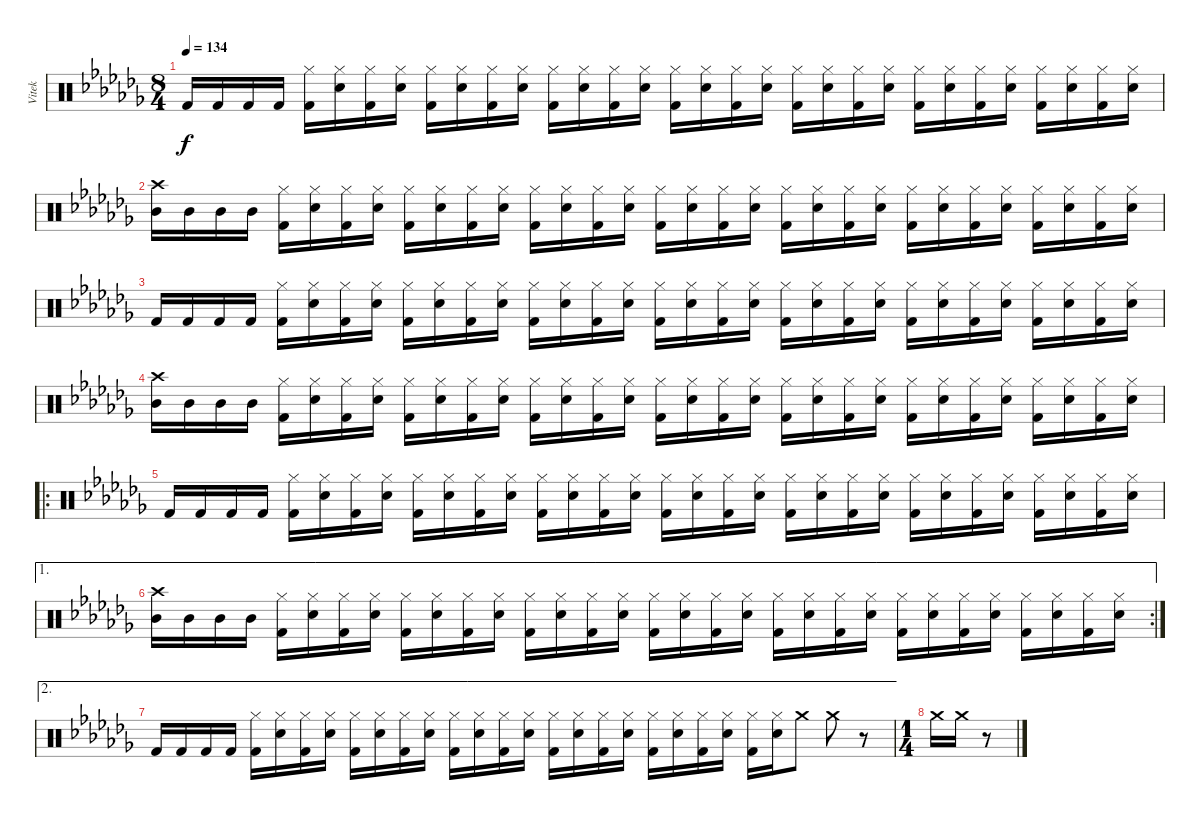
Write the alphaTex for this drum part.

\track ("Vitek" "Vitek") {instrument percussion}
\staff
\articulation defaults
\ts (8 4)
\tempo 134
\clef neutral
\ks cb "Kick (hit) 2".16{dy f} "Kick (hit) 2".16 "Kick (hit) 2".16 "Kick (hit) 2".16
("Hi-Hat (closed)" "Kick (hit) 2").16 ("Hi-Hat (closed)" "Electric Snare (hit)").16 ("Hi-Hat (closed)" "Kick (hit) 2").16 ("Hi-Hat (closed)" "Electric Snare (hit)").16 ("Hi-Hat (closed)" "Kick (hit) 2").16 ("Hi-Hat (closed)" "Electric Snare (hit)").16 ("Hi-Hat (closed)" "Kick (hit) 2").16 ("Hi-Hat (closed)" "Electric Snare (hit)").16 ("Hi-Hat (closed)" "Kick (hit) 2").16 ("Hi-Hat (closed)" "Electric Snare (hit)").16 ("Hi-Hat (closed)" "Kick (hit) 2").16 ("Hi-Hat (closed)" "Electric Snare (hit)").16 ("Hi-Hat (closed)" "Kick (hit) 2").16 ("Hi-Hat (closed)" "Electric Snare (hit)").16 ("Hi-Hat (closed)" "Kick (hit) 2").16 ("Hi-Hat (closed)" "Electric Snare (hit)").16 ("Hi-Hat (closed)" "Kick (hit) 2").16 ("Hi-Hat (closed)" "Electric Snare (hit)").16 ("Hi-Hat (closed)" "Kick (hit) 2").16 ("Hi-Hat (closed)" "Electric Snare (hit)").16 ("Hi-Hat (closed)" "Kick (hit) 2").16 ("Hi-Hat (closed)" "Electric Snare (hit)").16 ("Hi-Hat (closed)" "Kick (hit) 2").16 ("Hi-Hat (closed)" "Electric Snare (hit)").16 ("Hi-Hat (closed)" "Kick (hit) 2").16 ("Hi-Hat (closed)" "Electric Snare (hit)").16 ("Hi-Hat (closed)" "Kick (hit) 2").16 ("Hi-Hat (closed)" "Electric Snare (hit)").16 |
("Mid Tom (hit)" "Crash high (hit)").16 "Mid Tom (hit)".16 "Mid Tom (hit)".16 "Mid Tom (hit)".16 ("Hi-Hat (closed)" "Kick (hit) 2").16 ("Hi-Hat (closed)" "Electric Snare (hit)").16 ("Hi-Hat (closed)" "Kick (hit) 2").16 ("Hi-Hat (closed)" "Electric Snare (hit)").16 ("Hi-Hat (closed)" "Kick (hit) 2").16 ("Hi-Hat (closed)" "Electric Snare (hit)").16 ("Hi-Hat (closed)" "Kick (hit) 2").16 ("Hi-Hat (closed)" "Electric Snare (hit)").16 ("Hi-Hat (closed)" "Kick (hit) 2").16 ("Hi-Hat (closed)" "Electric Snare (hit)").16 ("Hi-Hat (closed)" "Kick (hit) 2").16 ("Hi-Hat (closed)" "Electric Snare (hit)").16 ("Hi-Hat (closed)" "Kick (hit) 2").16 ("Hi-Hat (closed)" "Electric Snare (hit)").16 ("Hi-Hat (closed)" "Kick (hit) 2").16 ("Hi-Hat (closed)" "Electric Snare (hit)").16 ("Hi-Hat (closed)" "Kick (hit) 2").16 ("Hi-Hat (closed)" "Electric Snare (hit)").16 ("Hi-Hat (closed)" "Kick (hit) 2").16 ("Hi-Hat (closed)" "Electric Snare (hit)").16 ("Hi-Hat (closed)" "Kick (hit) 2").16 ("Hi-Hat (closed)" "Electric Snare (hit)").16 ("Hi-Hat (closed)" "Kick (hit) 2").16 ("Hi-Hat (closed)" "Electric Snare (hit)").16 ("Hi-Hat (closed)" "Kick (hit) 2").16 ("Hi-Hat (closed)" "Electric Snare (hit)").16 ("Hi-Hat (closed)" "Kick (hit) 2").16 ("Hi-Hat (closed)" "Electric Snare (hit)").16 |
"Kick (hit) 2".16 "Kick (hit) 2".16 "Kick (hit) 2".16 "Kick (hit) 2".16 ("Hi-Hat (closed)" "Kick (hit) 2").16 ("Hi-Hat (closed)" "Electric Snare (hit)").16 ("Hi-Hat (closed)" "Kick (hit) 2").16 ("Hi-Hat (closed)" "Electric Snare (hit)").16 ("Hi-Hat (closed)" "Kick (hit) 2").16 ("Hi-Hat (closed)" "Electric Snare (hit)").16 ("Hi-Hat (closed)" "Kick (hit) 2").16 ("Hi-Hat (closed)" "Electric Snare (hit)").16 ("Hi-Hat (closed)" "Kick (hit) 2").16 ("Hi-Hat (closed)" "Electric Snare (hit)").16 ("Hi-Hat (closed)" "Kick (hit) 2").16 ("Hi-Hat (closed)" "Electric Snare (hit)").16 ("Hi-Hat (closed)" "Kick (hit) 2").16 ("Hi-Hat (closed)" "Electric Snare (hit)").16 ("Hi-Hat (closed)" "Kick (hit) 2").16 ("Hi-Hat (closed)" "Electric Snare (hit)").16 ("Hi-Hat (closed)" "Kick (hit) 2").16 ("Hi-Hat (closed)" "Electric Snare (hit)").16 ("Hi-Hat (closed)" "Kick (hit) 2").16 ("Hi-Hat (closed)" "Electric Snare (hit)").16 ("Hi-Hat (closed)" "Kick (hit) 2").16 ("Hi-Hat (closed)" "Electric Snare (hit)").16 ("Hi-Hat (closed)" "Kick (hit) 2").16 ("Hi-Hat (closed)" "Electric Snare (hit)").16 ("Hi-Hat (closed)" "Kick (hit) 2").16 ("Hi-Hat (closed)" "Electric Snare (hit)").16 ("Hi-Hat (closed)" "Kick (hit) 2").16 ("Hi-Hat (closed)" "Electric Snare (hit)").16 |
("Mid Tom (hit)" "Crash high (hit)").16 "Mid Tom (hit)".16 "Mid Tom (hit)".16 "Mid Tom (hit)".16 ("Hi-Hat (closed)" "Kick (hit) 2").16 ("Hi-Hat (closed)" "Electric Snare (hit)").16 ("Hi-Hat (closed)" "Kick (hit) 2").16 ("Hi-Hat (closed)" "Electric Snare (hit)").16 ("Hi-Hat (closed)" "Kick (hit) 2").16 ("Hi-Hat (closed)" "Electric Snare (hit)").16 ("Hi-Hat (closed)" "Kick (hit) 2").16 ("Hi-Hat (closed)" "Electric Snare (hit)").16 ("Hi-Hat (closed)" "Kick (hit) 2").16 ("Hi-Hat (closed)" "Electric Snare (hit)").16 ("Hi-Hat (closed)" "Kick (hit) 2").16 ("Hi-Hat (closed)" "Electric Snare (hit)").16 ("Hi-Hat (closed)" "Kick (hit) 2").16 ("Hi-Hat (closed)" "Electric Snare (hit)").16 ("Hi-Hat (closed)" "Kick (hit) 2").16 ("Hi-Hat (closed)" "Electric Snare (hit)").16 ("Hi-Hat (closed)" "Kick (hit) 2").16 ("Hi-Hat (closed)" "Electric Snare (hit)").16 ("Hi-Hat (closed)" "Kick (hit) 2").16 ("Hi-Hat (closed)" "Electric Snare (hit)").16 ("Hi-Hat (closed)" "Kick (hit) 2").16 ("Hi-Hat (closed)" "Electric Snare (hit)").16 ("Hi-Hat (closed)" "Kick (hit) 2").16 ("Hi-Hat (closed)" "Electric Snare (hit)").16 ("Hi-Hat (closed)" "Kick (hit) 2").16 ("Hi-Hat (closed)" "Electric Snare (hit)").16 ("Hi-Hat (closed)" "Kick (hit) 2").16 ("Hi-Hat (closed)" "Electric Snare (hit)").16 |
\ro "Kick (hit) 2".16 "Kick (hit) 2".16 "Kick (hit) 2".16 "Kick (hit) 2".16
("Hi-Hat (closed)" "Kick (hit) 2").16 ("Hi-Hat (closed)" "Electric Snare (hit)").16 ("Hi-Hat (closed)" "Kick (hit) 2").16 ("Hi-Hat (closed)" "Electric Snare (hit)").16 ("Hi-Hat (closed)" "Kick (hit) 2").16 ("Hi-Hat (closed)" "Electric Snare (hit)").16 ("Hi-Hat (closed)" "Kick (hit) 2").16 ("Hi-Hat (closed)" "Electric Snare (hit)").16 ("Hi-Hat (closed)" "Kick (hit) 2").16 ("Hi-Hat (closed)" "Electric Snare (hit)").16 ("Hi-Hat (closed)" "Kick (hit) 2").16 ("Hi-Hat (closed)" "Electric Snare (hit)").16 ("Hi-Hat (closed)" "Kick (hit) 2").16 ("Hi-Hat (closed)" "Electric Snare (hit)").16 ("Hi-Hat (closed)" "Kick (hit) 2").16 ("Hi-Hat (closed)" "Electric Snare (hit)").16 ("Hi-Hat (closed)" "Kick (hit) 2").16 ("Hi-Hat (closed)" "Electric Snare (hit)").16 ("Hi-Hat (closed)" "Kick (hit) 2").16 ("Hi-Hat (closed)" "Electric Snare (hit)").16 ("Hi-Hat (closed)" "Kick (hit) 2").16 ("Hi-Hat (closed)" "Electric Snare (hit)").16 ("Hi-Hat (closed)" "Kick (hit) 2").16 ("Hi-Hat (closed)" "Electric Snare (hit)").16 ("Hi-Hat (closed)" "Kick (hit) 2").16 ("Hi-Hat (closed)" "Electric Snare (hit)").16 ("Hi-Hat (closed)" "Kick (hit) 2").16 ("Hi-Hat (closed)" "Electric Snare (hit)").16 |
\ae 1
\rc 2
("Mid Tom (hit)" "Crash high (hit)").16 "Mid Tom (hit)".16 "Mid Tom (hit)".16 "Mid Tom (hit)".16 ("Hi-Hat (closed)" "Kick (hit) 2").16 ("Hi-Hat (closed)" "Electric Snare (hit)").16 ("Hi-Hat (closed)" "Kick (hit) 2").16 ("Hi-Hat (closed)" "Electric Snare (hit)").16 ("Hi-Hat (closed)" "Kick (hit) 2").16 ("Hi-Hat (closed)" "Electric Snare (hit)").16 ("Hi-Hat (closed)" "Kick (hit) 2").16 ("Hi-Hat (closed)" "Electric Snare (hit)").16 ("Hi-Hat (closed)" "Kick (hit) 2").16 ("Hi-Hat (closed)" "Electric Snare (hit)").16 ("Hi-Hat (closed)" "Kick (hit) 2").16 ("Hi-Hat (closed)" "Electric Snare (hit)").16 ("Hi-Hat (closed)" "Kick (hit) 2").16 ("Hi-Hat (closed)" "Electric Snare (hit)").16 ("Hi-Hat (closed)" "Kick (hit) 2").16 ("Hi-Hat (closed)" "Electric Snare (hit)").16 ("Hi-Hat (closed)" "Kick (hit) 2").16 ("Hi-Hat (closed)" "Electric Snare (hit)").16 ("Hi-Hat (closed)" "Kick (hit) 2").16 ("Hi-Hat (closed)" "Electric Snare (hit)").16 ("Hi-Hat (closed)" "Kick (hit) 2").16 ("Hi-Hat (closed)" "Electric Snare (hit)").16 ("Hi-Hat (closed)" "Kick (hit) 2").16 ("Hi-Hat (closed)" "Electric Snare (hit)").16 ("Hi-Hat (closed)" "Kick (hit) 2").16 ("Hi-Hat (closed)" "Electric Snare (hit)").16 ("Hi-Hat (closed)" "Kick (hit) 2").16 ("Hi-Hat (closed)" "Electric Snare (hit)").16 |
\ae 2 "Kick (hit) 2".16 "Kick (hit) 2".16 "Kick (hit) 2".16 "Kick (hit) 2".16
("Hi-Hat (closed)" "Kick (hit) 2").16 ("Hi-Hat (closed)" "Electric Snare (hit)").16 ("Hi-Hat (closed)" "Kick (hit) 2").16 ("Hi-Hat (closed)" "Electric Snare (hit)").16 ("Hi-Hat (closed)" "Kick (hit) 2").16 ("Hi-Hat (closed)" "Electric Snare (hit)").16 ("Hi-Hat (closed)" "Kick (hit) 2").16 ("Hi-Hat (closed)" "Electric Snare (hit)").16 ("Hi-Hat (closed)" "Kick (hit) 2").16 ("Hi-Hat (closed)" "Electric Snare (hit)").16 ("Hi-Hat (closed)" "Kick (hit) 2").16 ("Hi-Hat (closed)" "Electric Snare (hit)").16 ("Hi-Hat (closed)" "Kick (hit) 2").16 ("Hi-Hat (closed)" "Electric Snare (hit)").16 ("Hi-Hat (closed)" "Kick (hit) 2").16 ("Hi-Hat (closed)" "Electric Snare (hit)").16 ("Hi-Hat (closed)" "Kick (hit) 2").16 ("Hi-Hat (closed)" "Electric Snare (hit)").16 ("Hi-Hat (closed)" "Kick (hit) 2").16 ("Hi-Hat (closed)" "Electric Snare (hit)").16 ("Hi-Hat (closed)" "Kick (hit) 2").16 ("Hi-Hat (closed)" "Electric Snare (hit)").16 "Crash medium (hit)".8 "Crash medium (hit)".8 r.8 |
\ts (1 4)
"Crash medium (hit)".16 "Crash medium (hit)".16 r.8
